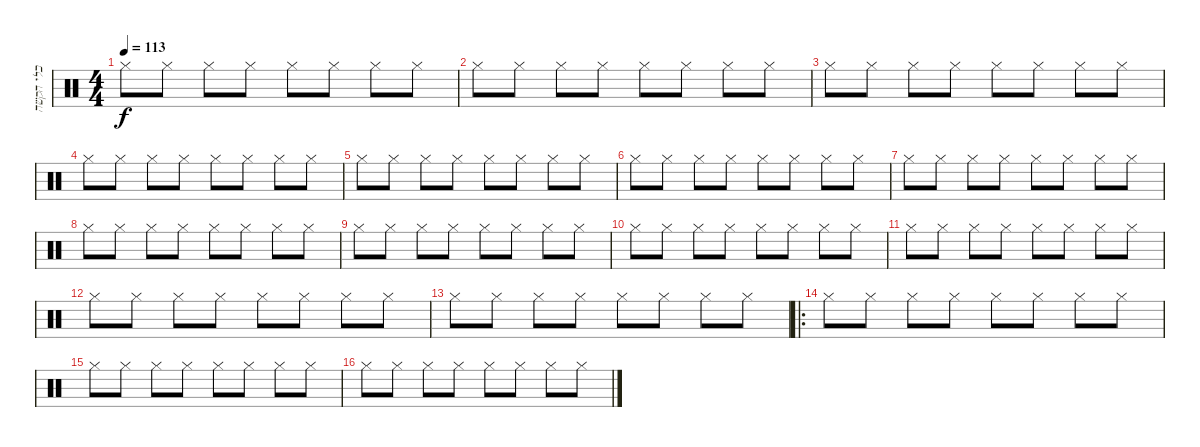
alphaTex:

\track ("כלי הקשה" "כלי הקשה") {instrument percussion}
\staff {score}
\articulation defaults
\ts (4 4)
\tempo 113
\clef neutral
\ks c "Hi-Hat (closed)".8{dy f} "Hi-Hat (closed)".8 "Hi-Hat (closed)".8 "Hi-Hat (closed)".8 "Hi-Hat (closed)".8 "Hi-Hat (closed)".8 "Hi-Hat (closed)".8 "Hi-Hat (closed)".8
|
"Hi-Hat (closed)".8 "Hi-Hat (closed)".8 "Hi-Hat (closed)".8 "Hi-Hat (closed)".8 "Hi-Hat (closed)".8 "Hi-Hat (closed)".8 "Hi-Hat (closed)".8 "Hi-Hat (closed)".8 |
"Hi-Hat (closed)".8 "Hi-Hat (closed)".8 "Hi-Hat (closed)".8 "Hi-Hat (closed)".8 "Hi-Hat (closed)".8 "Hi-Hat (closed)".8 "Hi-Hat (closed)".8 "Hi-Hat (closed)".8 |
"Hi-Hat (closed)".8 "Hi-Hat (closed)".8 "Hi-Hat (closed)".8 "Hi-Hat (closed)".8 "Hi-Hat (closed)".8 "Hi-Hat (closed)".8 "Hi-Hat (closed)".8 "Hi-Hat (closed)".8 |
"Hi-Hat (closed)".8 "Hi-Hat (closed)".8 "Hi-Hat (closed)".8 "Hi-Hat (closed)".8 "Hi-Hat (closed)".8 "Hi-Hat (closed)".8 "Hi-Hat (closed)".8 "Hi-Hat (closed)".8 |
"Hi-Hat (closed)".8 "Hi-Hat (closed)".8 "Hi-Hat (closed)".8 "Hi-Hat (closed)".8 "Hi-Hat (closed)".8 "Hi-Hat (closed)".8 "Hi-Hat (closed)".8 "Hi-Hat (closed)".8 |
"Hi-Hat (closed)".8 "Hi-Hat (closed)".8 "Hi-Hat (closed)".8 "Hi-Hat (closed)".8 "Hi-Hat (closed)".8 "Hi-Hat (closed)".8 "Hi-Hat (closed)".8 "Hi-Hat (closed)".8 |
"Hi-Hat (closed)".8 "Hi-Hat (closed)".8 "Hi-Hat (closed)".8 "Hi-Hat (closed)".8 "Hi-Hat (closed)".8 "Hi-Hat (closed)".8 "Hi-Hat (closed)".8 "Hi-Hat (closed)".8 |
"Hi-Hat (closed)".8 "Hi-Hat (closed)".8 "Hi-Hat (closed)".8 "Hi-Hat (closed)".8 "Hi-Hat (closed)".8 "Hi-Hat (closed)".8 "Hi-Hat (closed)".8 "Hi-Hat (closed)".8 |
"Hi-Hat (closed)".8 "Hi-Hat (closed)".8 "Hi-Hat (closed)".8 "Hi-Hat (closed)".8 "Hi-Hat (closed)".8 "Hi-Hat (closed)".8 "Hi-Hat (closed)".8 "Hi-Hat (closed)".8 |
"Hi-Hat (closed)".8 "Hi-Hat (closed)".8 "Hi-Hat (closed)".8 "Hi-Hat (closed)".8 "Hi-Hat (closed)".8 "Hi-Hat (closed)".8 "Hi-Hat (closed)".8 "Hi-Hat (closed)".8 |
"Hi-Hat (closed)".8 "Hi-Hat (closed)".8 "Hi-Hat (closed)".8 "Hi-Hat (closed)".8 "Hi-Hat (closed)".8 "Hi-Hat (closed)".8 "Hi-Hat (closed)".8 "Hi-Hat (closed)".8 |
"Hi-Hat (closed)".8 "Hi-Hat (closed)".8 "Hi-Hat (closed)".8 "Hi-Hat (closed)".8 "Hi-Hat (closed)".8 "Hi-Hat (closed)".8 "Hi-Hat (closed)".8 "Hi-Hat (closed)".8 |
\ro "Hi-Hat (closed)".8 "Hi-Hat (closed)".8 "Hi-Hat (closed)".8 "Hi-Hat (closed)".8 "Hi-Hat (closed)".8 "Hi-Hat (closed)".8 "Hi-Hat (closed)".8 "Hi-Hat (closed)".8
|
"Hi-Hat (closed)".8 "Hi-Hat (closed)".8 "Hi-Hat (closed)".8 "Hi-Hat (closed)".8 "Hi-Hat (closed)".8 "Hi-Hat (closed)".8 "Hi-Hat (closed)".8 "Hi-Hat (closed)".8 |
"Hi-Hat (closed)".8 "Hi-Hat (closed)".8 "Hi-Hat (closed)".8 "Hi-Hat (closed)".8 "Hi-Hat (closed)".8 "Hi-Hat (closed)".8 "Hi-Hat (closed)".8 "Hi-Hat (closed)".8
